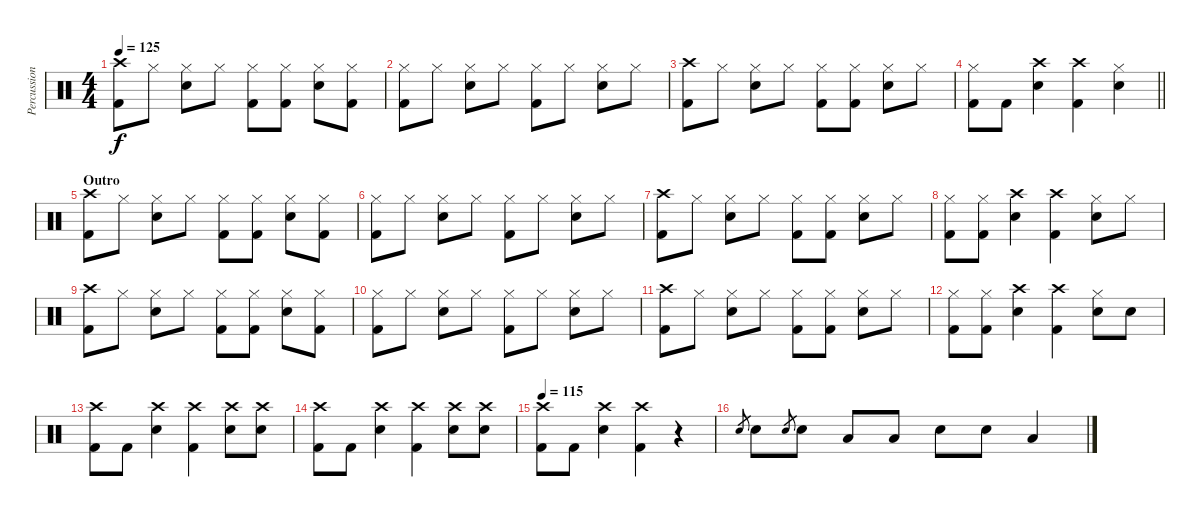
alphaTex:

\track ("Percussions" "Percussion") {instrument percussion}
\staff {score}
\articulation defaults
\ts (4 4)
\tempo 125
\clef neutral
\ks c
("Crash high (hit)" "Kick (hit) 2").8{dy f} "Hi-Hat (closed)".8 ("Hi-Hat (closed)" "Snare (hit) 2").8 "Hi-Hat (closed)".8 ("Hi-Hat (closed)" "Kick (hit) 2").8 ("Hi-Hat (closed)" "Kick (hit) 2").8 ("Hi-Hat (closed)" "Snare (hit) 2").8 ("Hi-Hat (closed)" "Kick (hit) 2").8 |
("Hi-Hat (closed)" "Kick (hit) 2").8 "Hi-Hat (closed)".8 ("Hi-Hat (closed)" "Snare (hit) 2").8 "Hi-Hat (closed)".8 ("Hi-Hat (closed)" "Kick (hit) 2").8 "Hi-Hat (closed)".8 ("Hi-Hat (closed)" "Snare (hit) 2").8 "Hi-Hat (closed)".8 |
("Crash high (hit)" "Kick (hit) 2").8 "Hi-Hat (closed)".8 ("Hi-Hat (closed)" "Snare (hit) 2").8 "Hi-Hat (closed)".8 ("Hi-Hat (closed)" "Kick (hit) 2").8 ("Hi-Hat (closed)" "Kick (hit) 2").8 ("Hi-Hat (closed)" "Snare (hit) 2").8 "Hi-Hat (closed)".8 |
\barLineRight lightlight
("Hi-Hat (closed)" "Kick (hit) 2").8 "Kick (hit) 2".8 ("Crash high (hit)" "Snare (hit) 2").4 ("Crash high (hit)" "Kick (hit) 2").4 ("Hi-Hat (closed)" "Snare (hit) 2").4 |
\section ("" "Outro")
("Crash high (hit)" "Kick (hit) 2").8 "Hi-Hat (closed)".8 ("Hi-Hat (closed)" "Snare (hit) 2").8 "Hi-Hat (closed)".8 ("Hi-Hat (closed)" "Kick (hit) 2").8 ("Hi-Hat (closed)" "Kick (hit) 2").8 ("Hi-Hat (closed)" "Snare (hit) 2").8 ("Hi-Hat (closed)" "Kick (hit) 2").8 |
("Hi-Hat (closed)" "Kick (hit) 2").8 "Hi-Hat (closed)".8 ("Hi-Hat (closed)" "Snare (hit) 2").8 "Hi-Hat (closed)".8 ("Hi-Hat (closed)" "Kick (hit) 2").8 "Hi-Hat (closed)".8 ("Hi-Hat (closed)" "Snare (hit) 2").8 "Hi-Hat (closed)".8 |
("Crash high (hit)" "Kick (hit) 2").8 "Hi-Hat (closed)".8 ("Hi-Hat (closed)" "Snare (hit) 2").8 "Hi-Hat (closed)".8 ("Hi-Hat (closed)" "Kick (hit) 2").8 ("Hi-Hat (closed)" "Kick (hit) 2").8 ("Hi-Hat (closed)" "Snare (hit) 2").8 "Hi-Hat (closed)".8 |
("Hi-Hat (closed)" "Kick (hit) 2").8 ("Hi-Hat (closed)" "Kick (hit) 2").8 ("Crash high (hit)" "Snare (hit) 2").4 ("Crash high (hit)" "Kick (hit) 2").4 ("Hi-Hat (closed)" "Snare (hit) 2").8 "Hi-Hat (closed)".8 |
("Crash high (hit)" "Kick (hit) 2").8 "Hi-Hat (closed)".8 ("Hi-Hat (closed)" "Snare (hit) 2").8 "Hi-Hat (closed)".8 ("Hi-Hat (closed)" "Kick (hit) 2").8 ("Hi-Hat (closed)" "Kick (hit) 2").8 ("Hi-Hat (closed)" "Snare (hit) 2").8 ("Hi-Hat (closed)" "Kick (hit) 2").8 |
("Hi-Hat (closed)" "Kick (hit) 2").8 "Hi-Hat (closed)".8 ("Hi-Hat (closed)" "Snare (hit) 2").8 "Hi-Hat (closed)".8 ("Hi-Hat (closed)" "Kick (hit) 2").8 "Hi-Hat (closed)".8 ("Hi-Hat (closed)" "Snare (hit) 2").8 "Hi-Hat (closed)".8 |
("Crash high (hit)" "Kick (hit) 2").8 "Hi-Hat (closed)".8 ("Hi-Hat (closed)" "Snare (hit) 2").8 "Hi-Hat (closed)".8 ("Hi-Hat (closed)" "Kick (hit) 2").8 ("Hi-Hat (closed)" "Kick (hit) 2").8 ("Hi-Hat (closed)" "Snare (hit) 2").8 "Hi-Hat (closed)".8 |
("Hi-Hat (closed)" "Kick (hit) 2").8 ("Hi-Hat (closed)" "Kick (hit) 2").8 ("Crash high (hit)" "Snare (hit) 2").4 ("Crash high (hit)" "Kick (hit) 2").4 ("Hi-Hat (closed)" "Snare (hit) 2").8 "Snare (hit) 2".8 |
("Crash high (hit)" "Kick (hit) 2").8 "Kick (hit) 2".8 ("Crash high (hit)" "Snare (hit) 2").4 ("Crash high (hit)" "Kick (hit) 2").4 ("Crash high (hit)" "Snare (hit) 2").8 ("Crash high (hit)" "Snare (hit) 2").8 |
("Crash high (hit)" "Kick (hit) 2").8 "Kick (hit) 2".8 ("Crash high (hit)" "Snare (hit) 2").4 ("Crash high (hit)" "Kick (hit) 2").4 ("Crash high (hit)" "Snare (hit) 2").8 ("Crash high (hit)" "Snare (hit) 2").8 |
\tempo 115
("Crash high (hit)" "Kick (hit) 2").8 "Kick (hit) 2".8 ("Crash high (hit)" "Snare (hit) 2").4 ("Crash high (hit)" "Kick (hit) 2").4 r.4 |
"Snare (hit) 2".8{gr} "Snare (hit) 2".8 "Snare (hit) 2".8{gr} "Snare (hit) 2".8 "Low Tom (hit)".8 "Low Tom (hit)".8 "Snare (hit) 2".8 "Snare (hit) 2".8 "Low Tom (hit)".4
